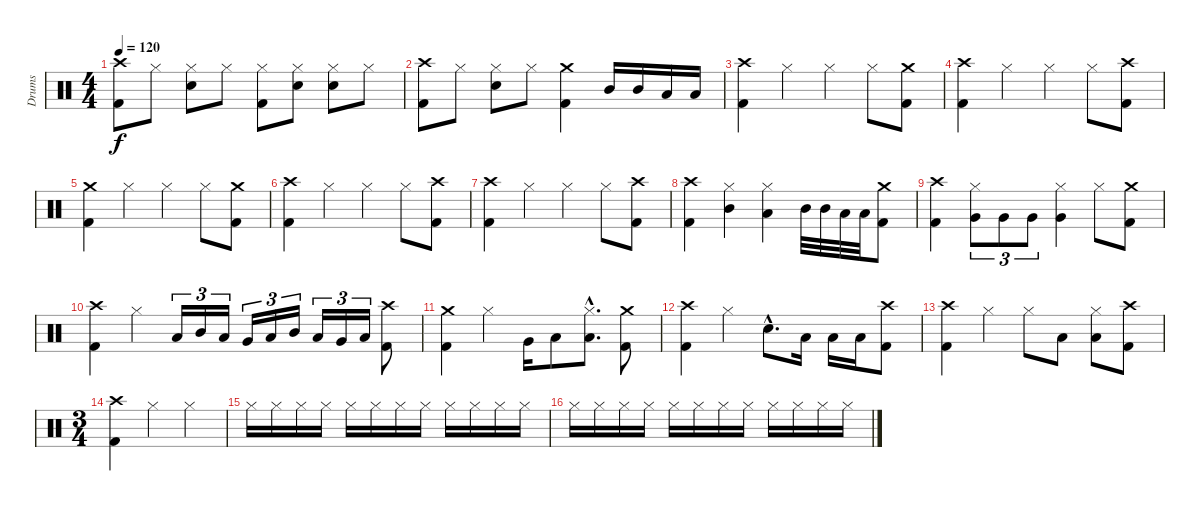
\track ("Drums" "Drums") {instrument percussion}
\staff {score}
\articulation defaults
\ts (4 4)
\tempo 120
\clef neutral
\ks c
("Crash high (hit)" "Kick (hit) 2").8{dy f} "Hi-Hat (closed)".8 ("Electric Snare (hit)" "Hi-Hat (closed)").8 "Hi-Hat (closed)".8 ("Hi-Hat (closed)" "Kick (hit) 2").8 ("Electric Snare (hit)" "Hi-Hat (closed)").8 ("Electric Snare (hit)" "Hi-Hat (closed)").8 "Hi-Hat (closed)".8 |
("Crash high (hit)" "Kick (hit) 2").8 "Hi-Hat (closed)".8 ("Electric Snare (hit)" "Hi-Hat (closed)").8 "Hi-Hat (closed)".8 ("Crash medium (hit)" "Kick (hit) 2").4 "Mid Tom (hit)".16 "Mid Tom (hit)".16 "Low Tom (hit)".16 "Low Tom (hit)".16 |
("Crash high (hit)" "Kick (hit) 2").4 "Hi-Hat (closed)".4 "Hi-Hat (closed)".4 "Hi-Hat (closed)".8 ("Crash medium (hit)" "Kick (hit) 2").8 |
("Crash high (hit)" "Kick (hit) 2").4 "Hi-Hat (closed)".4 "Hi-Hat (closed)".4 "Hi-Hat (closed)".8 ("Crash high (hit)" "Kick (hit) 2").8 |
("Crash medium (hit)" "Kick (hit) 2").4 "Hi-Hat (closed)".4 "Hi-Hat (closed)".4 "Hi-Hat (closed)".8 ("Crash medium (hit)" "Kick (hit) 2").8 |
("Crash high (hit)" "Kick (hit) 2").4 "Hi-Hat (closed)".4 "Hi-Hat (closed)".4 "Hi-Hat (closed)".8 ("Crash high (hit)" "Kick (hit) 2").8 |
("Crash high (hit)" "Kick (hit) 2").4 "Hi-Hat (closed)".4 "Hi-Hat (closed)".4 "Hi-Hat (closed)".8 ("Crash high (hit)" "Kick (hit) 2").8 |
("Crash high (hit)" "Kick (hit) 2").4 ("Mid Tom (hit)" "Hi-Hat (closed)").4 ("Low Tom (hit)" "Hi-Hat (closed)").4 "Mid Tom (hit)".32 "Mid Tom (hit)".32 "Low Tom (hit)".32 "Low Tom (hit)".32 ("Crash medium (hit)" "Kick (hit) 2").8 |
("Crash high (hit)" "Kick (hit) 2").4 ("Very Low Tom (hit)" "Hi-Hat (closed)").8{tu (3 2)} "Very Low Tom (hit)".8{tu (3 2)} "Very Low Tom (hit)".8{tu (3 2)} ("Very Low Tom (hit)" "Hi-Hat (closed)").4 "Hi-Hat (closed)".8 ("Crash medium (hit)" "Kick (hit) 2").8 |
("Crash high (hit)" "Kick (hit) 2").4 "Hi-Hat (closed)".4 "Low Tom (hit)".16{tu (3 2)} "Mid Tom (hit)".16{tu (3 2)} "Low Tom (hit)".16{tu (3 2)} "Very Low Tom (hit)".16{tu (3 2)} "Low Tom (hit)".16{tu (3 2)} "Mid Tom (hit)".16{tu (3 2)} "Low Tom (hit)".16{tu (3 2)} "Very Low Tom (hit)".16{tu (3 2)} "Low Tom (hit)".16{tu (3 2)} ("Crash high (hit)" "Kick (hit) 2").8 |
("Crash medium (hit)" "Kick (hit) 2").4 "Hi-Hat (closed)".4 "Very Low Tom (hit)".16 "Low Tom (hit)".8 ("Low Tom (hit)"{hac} "Hi-Hat (closed)"{hac}).8{d} ("Crash medium (hit)" "Kick (hit) 2").8 |
("Crash high (hit)" "Kick (hit) 2").4 "Hi-Hat (closed)".4 "Electric Snare (hit)"{hac}.8{d} "Low Tom (hit)".16 "Low Tom (hit)".16 "Low Tom (hit)".16 ("Crash high (hit)" "Kick (hit) 2").8 |
("Crash high (hit)" "Kick (hit) 2").4 "Hi-Hat (closed)".4 "Hi-Hat (closed)".8 "Low Tom (hit)".8 ("Hi-Hat (closed)" "Low Tom (hit)").8 ("Crash high (hit)" "Kick (hit) 2").8 |
\ts (3 4)
("Crash high (hit)" "Kick (hit) 2").4 "Hi-Hat (closed)".4 "Hi-Hat (closed)".4 |
"Hi-Hat (closed)".16 "Hi-Hat (closed)".16 "Hi-Hat (closed)".16 "Hi-Hat (closed)".16 "Hi-Hat (closed)".16 "Hi-Hat (closed)".16 "Hi-Hat (closed)".16 "Hi-Hat (closed)".16 "Hi-Hat (closed)".16 "Hi-Hat (closed)".16 "Hi-Hat (closed)".16 "Hi-Hat (closed)".16 |
"Hi-Hat (closed)".16 "Hi-Hat (closed)".16 "Hi-Hat (closed)".16 "Hi-Hat (closed)".16 "Hi-Hat (closed)".16 "Hi-Hat (closed)".16 "Hi-Hat (closed)".16 "Hi-Hat (closed)".16 "Hi-Hat (closed)".16 "Hi-Hat (closed)".16 "Hi-Hat (closed)".16 "Hi-Hat (closed)".16
